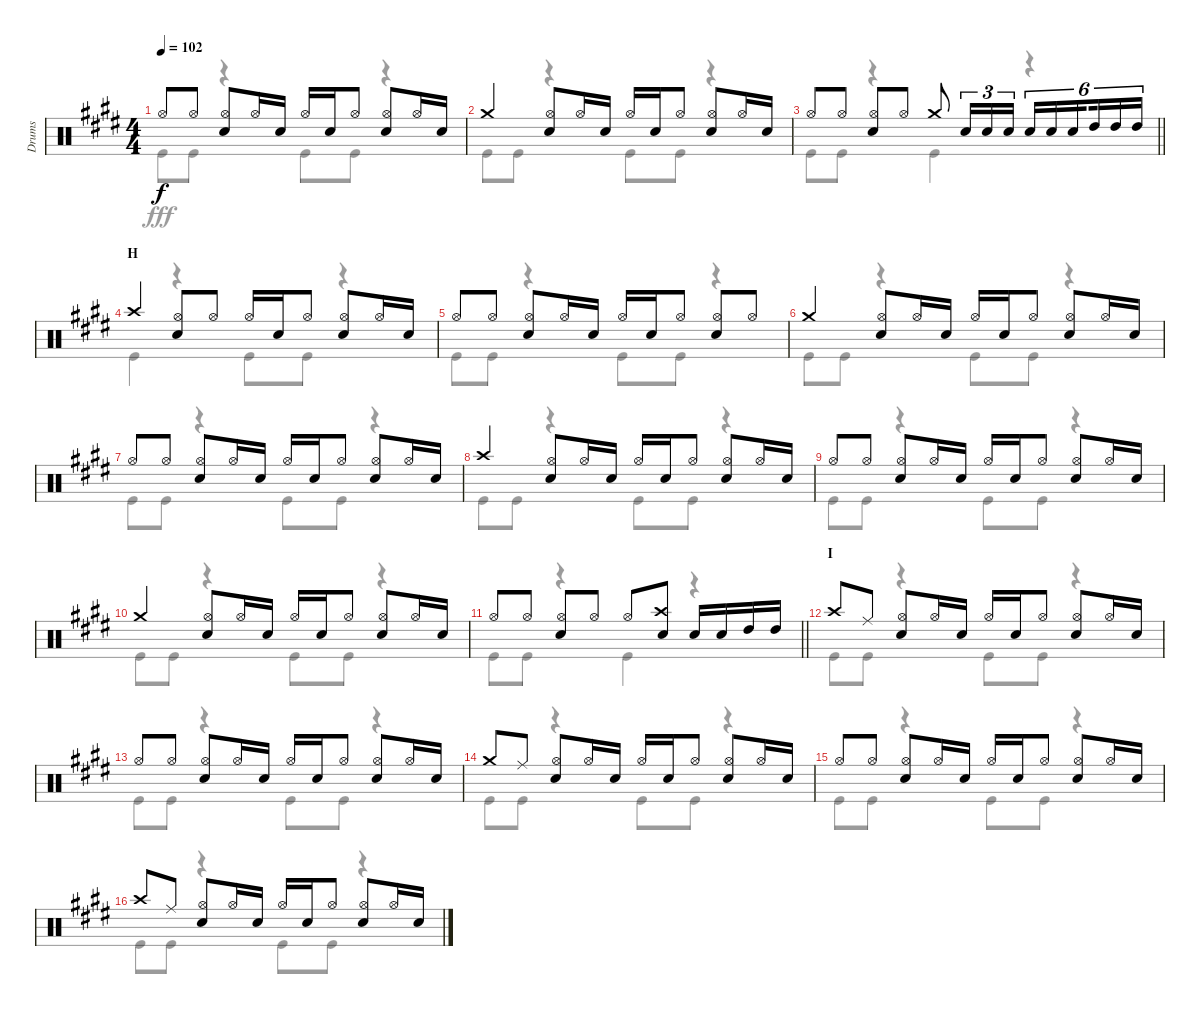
\track ("Drums" "Drums") {instrument percussion}
\staff {score}
\articulation defaults
\voice
\ts (4 4)
\tempo 102
\clef neutral
\ks e "Hi-Hat (open)".8{dy f} "Hi-Hat (open)".8
("Hi-Hat (open)" "Snare (hit) 2").8 "Hi-Hat (open)".16 "Snare (hit) 2".16 "Hi-Hat (open)".16 "Snare (hit) 2".16 "Hi-Hat (open)".8 ("Hi-Hat (open)" "Snare (hit) 2").8 "Hi-Hat (open)".16 "Snare (hit) 2".16 |
"Crash medium (hit)".4 ("Hi-Hat (open)" "Snare (hit) 2").8 "Hi-Hat (open)".16 "Snare (hit) 2".16 "Hi-Hat (open)".16 "Snare (hit) 2".16 "Hi-Hat (open)".8 ("Hi-Hat (open)" "Snare (hit) 2").8 "Hi-Hat (open)".16 "Snare (hit) 2".16 |
\barLineRight lightlight "Hi-Hat (open)".8 "Hi-Hat (open)".8
("Hi-Hat (open)" "Snare (hit) 2").8 "Hi-Hat (open)".8 "Crash medium (hit)".8 "Snare (hit) 2".16{tu (3 2)} "Snare (hit) 2".16{tu (3 2)} "Snare (hit) 2".16{tu (3 2)} "Snare (hit) 2".16{tu (6 4)} "Snare (hit) 2".16{tu (6 4)} "Snare (hit) 2".16{tu (6 4) beam splitsecondary} "High Tom (hit)".16{tu (6 4)} "High Tom (hit)".16{tu (6 4)} "High Tom (hit)".16{tu (6 4)} |
\section ("" "H")
"Crash high (hit)".4 ("Hi-Hat (open)" "Snare (hit) 2").8 "Hi-Hat (open)".8 "Hi-Hat (open)".16 "Snare (hit) 2".16 "Hi-Hat (open)".8 ("Hi-Hat (open)" "Snare (hit) 2").8 "Hi-Hat (open)".16 "Snare (hit) 2".16 |
"Hi-Hat (open)".8 "Hi-Hat (open)".8 ("Hi-Hat (open)" "Snare (hit) 2").8 "Hi-Hat (open)".16 "Snare (hit) 2".16 "Hi-Hat (open)".16 "Snare (hit) 2".16 "Hi-Hat (open)".8 ("Hi-Hat (open)" "Snare (hit) 2").8 "Hi-Hat (open)".8 |
"Crash medium (hit)".4 ("Hi-Hat (open)" "Snare (hit) 2").8 "Hi-Hat (open)".16 "Snare (hit) 2".16 "Hi-Hat (open)".16 "Snare (hit) 2".16 "Hi-Hat (open)".8 ("Hi-Hat (open)" "Snare (hit) 2").8 "Hi-Hat (open)".16 "Snare (hit) 2".16 |
"Hi-Hat (open)".8 "Hi-Hat (open)".8 ("Hi-Hat (open)" "Snare (hit) 2").8 "Hi-Hat (open)".16 "Snare (hit) 2".16 "Hi-Hat (open)".16 "Snare (hit) 2".16 "Hi-Hat (open)".8 ("Hi-Hat (open)" "Snare (hit) 2").8 "Hi-Hat (open)".16 "Snare (hit) 2".16 |
"Crash high (hit)".4 ("Hi-Hat (open)" "Snare (hit) 2").8 "Hi-Hat (open)".16 "Snare (hit) 2".16 "Hi-Hat (open)".16 "Snare (hit) 2".16 "Hi-Hat (open)".8 ("Hi-Hat (open)" "Snare (hit) 2").8 "Hi-Hat (open)".16 "Snare (hit) 2".16 |
"Hi-Hat (open)".8 "Hi-Hat (open)".8 ("Hi-Hat (open)" "Snare (hit) 2").8 "Hi-Hat (open)".16 "Snare (hit) 2".16 "Hi-Hat (open)".16 "Snare (hit) 2".16 "Hi-Hat (open)".8 ("Hi-Hat (open)" "Snare (hit) 2").8 "Hi-Hat (open)".16 "Snare (hit) 2".16 |
"Crash medium (hit)".4 ("Hi-Hat (open)" "Snare (hit) 2").8 "Hi-Hat (open)".16 "Snare (hit) 2".16 "Hi-Hat (open)".16 "Snare (hit) 2".16 "Hi-Hat (open)".8 ("Hi-Hat (open)" "Snare (hit) 2").8 "Hi-Hat (open)".16 "Snare (hit) 2".16 |
\barLineRight lightlight "Hi-Hat (open)".8 "Hi-Hat (open)".8
("Hi-Hat (open)" "Snare (hit) 2").8 "Hi-Hat (open)".8 "Hi-Hat (open)".8 ("Crash high (hit)" "Snare (hit) 2").8 "Snare (hit) 2".16 "Snare (hit) 2".16 "High Tom (hit)".16 "High Tom (hit)".16 |
\section ("" "I")
"Crash high (hit)".8 "Ride (middle)".8 ("Hi-Hat (open)" "Snare (hit) 2").8 "Hi-Hat (open)".16 "Snare (hit) 2".16 "Hi-Hat (open)".16 "Snare (hit) 2".16 "Hi-Hat (open)".8 ("Hi-Hat (open)" "Snare (hit) 2").8 "Hi-Hat (open)".16 "Snare (hit) 2".16 |
"Hi-Hat (open)".8 "Hi-Hat (open)".8 ("Hi-Hat (open)" "Snare (hit) 2").8 "Hi-Hat (open)".16 "Snare (hit) 2".16 "Hi-Hat (open)".16 "Snare (hit) 2".16 "Hi-Hat (open)".8 ("Hi-Hat (open)" "Snare (hit) 2").8 "Hi-Hat (open)".16 "Snare (hit) 2".16 |
"Crash medium (hit)".8 "Ride (middle)".8 ("Hi-Hat (open)" "Snare (hit) 2").8 "Hi-Hat (open)".16 "Snare (hit) 2".16 "Hi-Hat (open)".16 "Snare (hit) 2".16 "Hi-Hat (open)".8 ("Hi-Hat (open)" "Snare (hit) 2").8 "Hi-Hat (open)".16 "Snare (hit) 2".16 |
"Hi-Hat (open)".8 "Hi-Hat (open)".8 ("Hi-Hat (open)" "Snare (hit) 2").8 "Hi-Hat (open)".16 "Snare (hit) 2".16 "Hi-Hat (open)".16 "Snare (hit) 2".16 "Hi-Hat (open)".8 ("Hi-Hat (open)" "Snare (hit) 2").8 "Hi-Hat (open)".16 "Snare (hit) 2".16 |
"Crash high (hit)".8 "Ride (middle)".8 ("Hi-Hat (open)" "Snare (hit) 2").8 "Hi-Hat (open)".16 "Snare (hit) 2".16 "Hi-Hat (open)".16 "Snare (hit) 2".16 "Hi-Hat (open)".8 ("Hi-Hat (open)" "Snare (hit) 2").8 "Hi-Hat (open)".16 "Snare (hit) 2".16
\voice
\clef neutral
\ottava regular
\simile none
\ks e "Kick (hit)".8{dy fff} "Kick (hit)".8
r.4 "Kick (hit)".8 "Kick (hit)".8 r.4 |
"Kick (hit)".8 "Kick (hit)".8 r.4 "Kick (hit)".8 "Kick (hit)".8 r.4 |
\barLineRight lightlight "Kick (hit)".8 "Kick (hit)".8
r.4 "Kick (hit)".4 r.4 |
"Kick (hit)".4 r.4 "Kick (hit)".8 "Kick (hit)".8 r.4 |
"Kick (hit)".8 "Kick (hit)".8 r.4 "Kick (hit)".8 "Kick (hit)".8 r.4 |
"Kick (hit)".8 "Kick (hit)".8 r.4 "Kick (hit)".8 "Kick (hit)".8 r.4 |
"Kick (hit)".8 "Kick (hit)".8 r.4 "Kick (hit)".8 "Kick (hit)".8 r.4 |
"Kick (hit)".8 "Kick (hit)".8 r.4 "Kick (hit)".8 "Kick (hit)".8 r.4 |
"Kick (hit)".8 "Kick (hit)".8 r.4 "Kick (hit)".8 "Kick (hit)".8 r.4 |
"Kick (hit)".8 "Kick (hit)".8 r.4 "Kick (hit)".8 "Kick (hit)".8 r.4 |
\barLineRight lightlight "Kick (hit)".8 "Kick (hit)".8
r.4 "Kick (hit)".4 r.4 |
"Kick (hit)".8 "Kick (hit)".8 r.4 "Kick (hit)".8 "Kick (hit)".8 r.4 |
"Kick (hit)".8 "Kick (hit)".8 r.4 "Kick (hit)".8 "Kick (hit)".8 r.4 |
"Kick (hit)".8 "Kick (hit)".8 r.4 "Kick (hit)".8 "Kick (hit)".8 r.4 |
"Kick (hit)".8 "Kick (hit)".8 r.4 "Kick (hit)".8 "Kick (hit)".8 r.4 |
"Kick (hit)".8 "Kick (hit)".8 r.4 "Kick (hit)".8 "Kick (hit)".8 r.4
